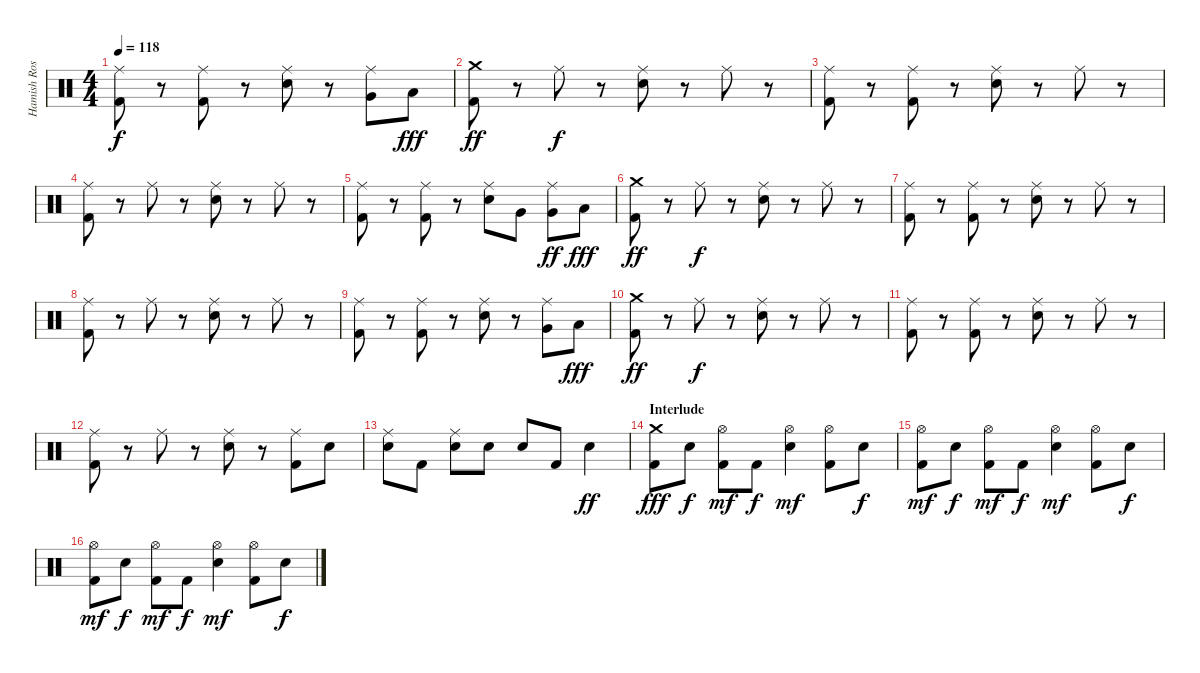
\track ("Hamish Rosser" "Hamish Ros") {instrument percussion}
\staff {score}
\articulation defaults
\ts (4 4)
\tempo 118
\clef neutral
\ks c
("Ride (middle)" "Kick (hit) 2").8{dy f} r.8 ("Ride (middle)" "Kick (hit) 2").8 r.8 ("Ride (middle)" "Electric Snare (hit)").8 r.8 ("Ride (middle)" "Very Low Tom (hit)").8 "Low Tom (hit)".8{dy fff} |
("Crash medium (hit)" "Kick (hit) 2").8{dy ff} r.8 "Ride (middle)".8{dy f} r.8 ("Ride (middle)" "Electric Snare (hit)").8 r.8 "Ride (middle)".8 r.8 |
("Ride (middle)" "Kick (hit) 2").8 r.8 ("Ride (middle)" "Kick (hit) 2").8 r.8 ("Ride (middle)" "Electric Snare (hit)").8 r.8 "Ride (middle)".8 r.8 |
("Ride (middle)" "Kick (hit) 2").8 r.8 "Ride (middle)".8 r.8 ("Ride (middle)" "Electric Snare (hit)").8 r.8 "Ride (middle)".8 r.8 |
("Ride (middle)" "Kick (hit) 2").8 r.8 ("Ride (middle)" "Kick (hit) 2").8 r.8 ("Ride (middle)" "Electric Snare (hit)").8 "Very Low Tom (hit)".8 ("Ride (middle)" "Very Low Tom (hit)").8{dy ff} "Low Tom (hit)".8{dy fff} |
("Crash medium (hit)" "Kick (hit) 2").8{dy ff} r.8 "Ride (middle)".8{dy f} r.8 ("Ride (middle)" "Electric Snare (hit)").8 r.8 "Ride (middle)".8 r.8 |
("Ride (middle)" "Kick (hit) 2").8 r.8 ("Ride (middle)" "Kick (hit) 2").8 r.8 ("Ride (middle)" "Electric Snare (hit)").8 r.8 "Ride (middle)".8 r.8 |
("Ride (middle)" "Kick (hit) 2").8 r.8 "Ride (middle)".8 r.8 ("Ride (middle)" "Electric Snare (hit)").8 r.8 "Ride (middle)".8 r.8 |
("Ride (middle)" "Kick (hit) 2").8 r.8 ("Ride (middle)" "Kick (hit) 2").8 r.8 ("Ride (middle)" "Electric Snare (hit)").8 r.8 ("Ride (middle)" "Very Low Tom (hit)").8 "Low Tom (hit)".8{dy fff} |
("Crash medium (hit)" "Kick (hit) 2").8{dy ff} r.8 "Ride (middle)".8{dy f} r.8 ("Ride (middle)" "Electric Snare (hit)").8 r.8 "Ride (middle)".8 r.8 |
("Ride (middle)" "Kick (hit) 2").8 r.8 ("Ride (middle)" "Kick (hit) 2").8 r.8 ("Ride (middle)" "Electric Snare (hit)").8 r.8 "Ride (middle)".8 r.8 |
("Ride (middle)" "Kick (hit) 2").8 r.8 "Ride (middle)".8 r.8 ("Ride (middle)" "Electric Snare (hit)").8 r.8 ("Ride (middle)" "Kick (hit) 2").8 "Electric Snare (hit)".8 |
("Ride (middle)" "Electric Snare (hit)").8 "Kick (hit) 2".8 ("Ride (middle)" "Electric Snare (hit)").8 "Electric Snare (hit)".8 "Electric Snare (hit)".8 "Kick (hit) 2".8 "Electric Snare (hit)".4{dy ff} |
\section ("" "Interlude")
("Crash medium (hit)" "Kick (hit) 2").8{dy fff} "Electric Snare (hit)".8{dy f} ("Hi-Hat (open)" "Kick (hit) 2").8{dy mf} "Kick (hit) 2".8{dy f} ("Hi-Hat (open)" "Electric Snare (hit)").4{dy mf} ("Hi-Hat (open)" "Kick (hit) 2").8 "Electric Snare (hit)".8{dy f} |
("Hi-Hat (open)" "Kick (hit) 2").8{dy mf} "Electric Snare (hit)".8{dy f} ("Hi-Hat (open)" "Kick (hit) 2").8{dy mf} "Kick (hit) 2".8{dy f} ("Hi-Hat (open)" "Electric Snare (hit)").4{dy mf} ("Hi-Hat (open)" "Kick (hit) 2").8 "Electric Snare (hit)".8{dy f} |
("Hi-Hat (open)" "Kick (hit) 2").8{dy mf} "Electric Snare (hit)".8{dy f} ("Hi-Hat (open)" "Kick (hit) 2").8{dy mf} "Kick (hit) 2".8{dy f} ("Hi-Hat (open)" "Electric Snare (hit)").4{dy mf} ("Hi-Hat (open)" "Kick (hit) 2").8 "Electric Snare (hit)".8{dy f}
